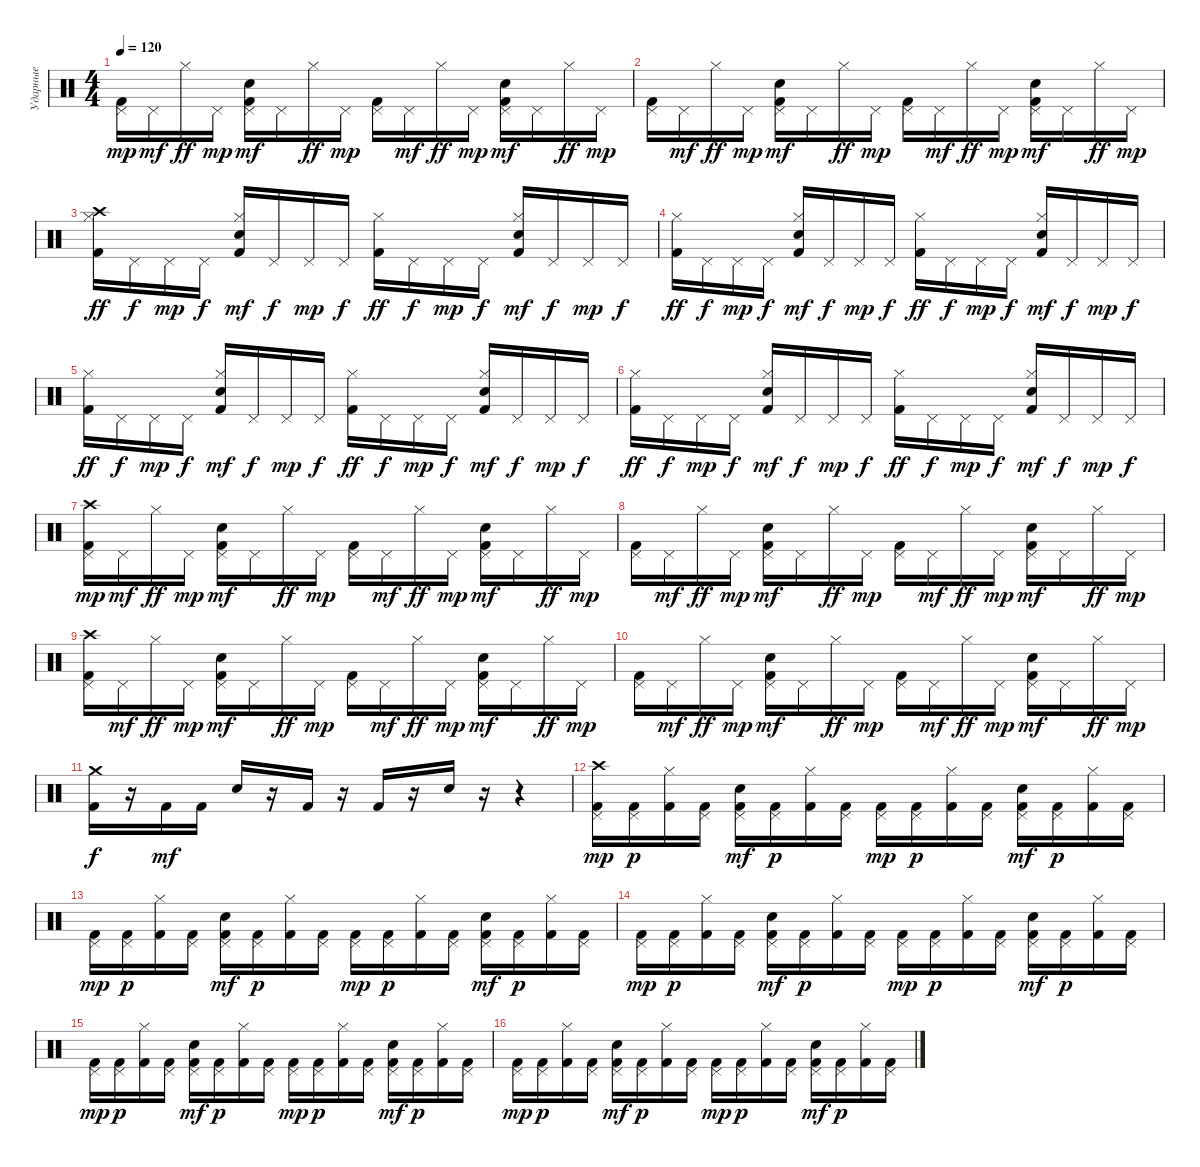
\track ("Ударные" "Ударные") {instrument percussion}
\staff {score}
\articulation defaults
\ts (4 4)
\tempo 120
\clef neutral
\ks c
("Pedal Hi-Hat (hit)" "Kick (hit) 2").16{dy mp} "Pedal Hi-Hat (hit)".16{dy mf} "Hi-Hat (closed)".16{dy ff} "Pedal Hi-Hat (hit)".16{dy mp} ("Pedal Hi-Hat (hit)" "Electric Snare (hit)" "Kick (hit) 2").16{dy mf} "Pedal Hi-Hat (hit)".16 "Hi-Hat (closed)".16{dy ff} "Pedal Hi-Hat (hit)".16{dy mp} ("Pedal Hi-Hat (hit)" "Kick (hit) 2").16 "Pedal Hi-Hat (hit)".16{dy mf} "Hi-Hat (closed)".16{dy ff} "Pedal Hi-Hat (hit)".16{dy mp} ("Pedal Hi-Hat (hit)" "Electric Snare (hit)" "Kick (hit) 2").16{dy mf} "Pedal Hi-Hat (hit)".16 "Hi-Hat (closed)".16{dy ff} "Pedal Hi-Hat (hit)".16{dy mp} |
("Pedal Hi-Hat (hit)" "Kick (hit) 2").16 "Pedal Hi-Hat (hit)".16{dy mf} "Hi-Hat (closed)".16{dy ff} "Pedal Hi-Hat (hit)".16{dy mp} ("Pedal Hi-Hat (hit)" "Electric Snare (hit)" "Kick (hit) 2").16{dy mf} "Pedal Hi-Hat (hit)".16 "Hi-Hat (closed)".16{dy ff} "Pedal Hi-Hat (hit)".16{dy mp} ("Pedal Hi-Hat (hit)" "Kick (hit) 2").16 "Pedal Hi-Hat (hit)".16{dy mf} "Hi-Hat (closed)".16{dy ff} "Pedal Hi-Hat (hit)".16{dy mp} ("Pedal Hi-Hat (hit)" "Electric Snare (hit)" "Kick (hit) 2").16{dy mf} "Pedal Hi-Hat (hit)".16 "Hi-Hat (closed)".16{dy ff} "Pedal Hi-Hat (hit)".16{dy mp} |
("Crash high (hit)" "Hi-Hat (closed)" "Kick (hit) 2").16{dy ff} "Pedal Hi-Hat (hit)".16{dy f} "Pedal Hi-Hat (hit)".16{dy mp} "Pedal Hi-Hat (hit)".16{dy f} ("Hi-Hat (closed)" "Electric Snare (hit)" "Kick (hit) 2").16{dy mf} "Pedal Hi-Hat (hit)".16{dy f} "Pedal Hi-Hat (hit)".16{dy mp} "Pedal Hi-Hat (hit)".16{dy f} ("Hi-Hat (closed)" "Kick (hit) 2").16{dy ff} "Pedal Hi-Hat (hit)".16{dy f} "Pedal Hi-Hat (hit)".16{dy mp} "Pedal Hi-Hat (hit)".16{dy f} ("Hi-Hat (closed)" "Electric Snare (hit)" "Kick (hit) 2").16{dy mf} "Pedal Hi-Hat (hit)".16{dy f} "Pedal Hi-Hat (hit)".16{dy mp} "Pedal Hi-Hat (hit)".16{dy f} |
("Hi-Hat (closed)" "Kick (hit) 2").16{dy ff} "Pedal Hi-Hat (hit)".16{dy f} "Pedal Hi-Hat (hit)".16{dy mp} "Pedal Hi-Hat (hit)".16{dy f} ("Hi-Hat (closed)" "Electric Snare (hit)" "Kick (hit) 2").16{dy mf} "Pedal Hi-Hat (hit)".16{dy f} "Pedal Hi-Hat (hit)".16{dy mp} "Pedal Hi-Hat (hit)".16{dy f} ("Hi-Hat (closed)" "Kick (hit) 2").16{dy ff} "Pedal Hi-Hat (hit)".16{dy f} "Pedal Hi-Hat (hit)".16{dy mp} "Pedal Hi-Hat (hit)".16{dy f} ("Hi-Hat (closed)" "Electric Snare (hit)" "Kick (hit) 2").16{dy mf} "Pedal Hi-Hat (hit)".16{dy f} "Pedal Hi-Hat (hit)".16{dy mp} "Pedal Hi-Hat (hit)".16{dy f} |
("Hi-Hat (closed)" "Kick (hit) 2").16{dy ff} "Pedal Hi-Hat (hit)".16{dy f} "Pedal Hi-Hat (hit)".16{dy mp} "Pedal Hi-Hat (hit)".16{dy f} ("Hi-Hat (closed)" "Electric Snare (hit)" "Kick (hit) 2").16{dy mf} "Pedal Hi-Hat (hit)".16{dy f} "Pedal Hi-Hat (hit)".16{dy mp} "Pedal Hi-Hat (hit)".16{dy f} ("Hi-Hat (closed)" "Kick (hit) 2").16{dy ff} "Pedal Hi-Hat (hit)".16{dy f} "Pedal Hi-Hat (hit)".16{dy mp} "Pedal Hi-Hat (hit)".16{dy f} ("Hi-Hat (closed)" "Electric Snare (hit)" "Kick (hit) 2").16{dy mf} "Pedal Hi-Hat (hit)".16{dy f} "Pedal Hi-Hat (hit)".16{dy mp} "Pedal Hi-Hat (hit)".16{dy f} |
("Hi-Hat (closed)" "Kick (hit) 2").16{dy ff} "Pedal Hi-Hat (hit)".16{dy f} "Pedal Hi-Hat (hit)".16{dy mp} "Pedal Hi-Hat (hit)".16{dy f} ("Hi-Hat (closed)" "Electric Snare (hit)" "Kick (hit) 2").16{dy mf} "Pedal Hi-Hat (hit)".16{dy f} "Pedal Hi-Hat (hit)".16{dy mp} "Pedal Hi-Hat (hit)".16{dy f} ("Hi-Hat (closed)" "Kick (hit) 2").16{dy ff} "Pedal Hi-Hat (hit)".16{dy f} "Pedal Hi-Hat (hit)".16{dy mp} "Pedal Hi-Hat (hit)".16{dy f} ("Hi-Hat (closed)" "Electric Snare (hit)" "Kick (hit) 2").16{dy mf} "Pedal Hi-Hat (hit)".16{dy f} "Pedal Hi-Hat (hit)".16{dy mp} "Pedal Hi-Hat (hit)".16{dy f} |
("Crash high (hit)" "Pedal Hi-Hat (hit)" "Kick (hit) 2").16{dy mp} "Pedal Hi-Hat (hit)".16{dy mf} "Hi-Hat (closed)".16{dy ff} "Pedal Hi-Hat (hit)".16{dy mp} ("Pedal Hi-Hat (hit)" "Electric Snare (hit)" "Kick (hit) 2").16{dy mf} "Pedal Hi-Hat (hit)".16 "Hi-Hat (closed)".16{dy ff} "Pedal Hi-Hat (hit)".16{dy mp} ("Pedal Hi-Hat (hit)" "Kick (hit) 2").16 "Pedal Hi-Hat (hit)".16{dy mf} "Hi-Hat (closed)".16{dy ff} "Pedal Hi-Hat (hit)".16{dy mp} ("Pedal Hi-Hat (hit)" "Electric Snare (hit)" "Kick (hit) 2").16{dy mf} "Pedal Hi-Hat (hit)".16 "Hi-Hat (closed)".16{dy ff} "Pedal Hi-Hat (hit)".16{dy mp} |
("Pedal Hi-Hat (hit)" "Kick (hit) 2").16 "Pedal Hi-Hat (hit)".16{dy mf} "Hi-Hat (closed)".16{dy ff} "Pedal Hi-Hat (hit)".16{dy mp} ("Pedal Hi-Hat (hit)" "Electric Snare (hit)" "Kick (hit) 2").16{dy mf} "Pedal Hi-Hat (hit)".16 "Hi-Hat (closed)".16{dy ff} "Pedal Hi-Hat (hit)".16{dy mp} ("Pedal Hi-Hat (hit)" "Kick (hit) 2").16 "Pedal Hi-Hat (hit)".16{dy mf} "Hi-Hat (closed)".16{dy ff} "Pedal Hi-Hat (hit)".16{dy mp} ("Pedal Hi-Hat (hit)" "Electric Snare (hit)" "Kick (hit) 2").16{dy mf} "Pedal Hi-Hat (hit)".16 "Hi-Hat (closed)".16{dy ff} "Pedal Hi-Hat (hit)".16{dy mp} |
("Crash high (hit)" "Pedal Hi-Hat (hit)" "Kick (hit) 2").16 "Pedal Hi-Hat (hit)".16{dy mf} "Hi-Hat (closed)".16{dy ff} "Pedal Hi-Hat (hit)".16{dy mp} ("Pedal Hi-Hat (hit)" "Electric Snare (hit)" "Kick (hit) 2").16{dy mf} "Pedal Hi-Hat (hit)".16 "Hi-Hat (closed)".16{dy ff} "Pedal Hi-Hat (hit)".16{dy mp} ("Pedal Hi-Hat (hit)" "Kick (hit) 2").16 "Pedal Hi-Hat (hit)".16{dy mf} "Hi-Hat (closed)".16{dy ff} "Pedal Hi-Hat (hit)".16{dy mp} ("Pedal Hi-Hat (hit)" "Electric Snare (hit)" "Kick (hit) 2").16{dy mf} "Pedal Hi-Hat (hit)".16 "Hi-Hat (closed)".16{dy ff} "Pedal Hi-Hat (hit)".16{dy mp} |
("Pedal Hi-Hat (hit)" "Kick (hit) 2").16 "Pedal Hi-Hat (hit)".16{dy mf} "Hi-Hat (closed)".16{dy ff} "Pedal Hi-Hat (hit)".16{dy mp} ("Pedal Hi-Hat (hit)" "Electric Snare (hit)" "Kick (hit) 2").16{dy mf} "Pedal Hi-Hat (hit)".16 "Hi-Hat (closed)".16{dy ff} "Pedal Hi-Hat (hit)".16{dy mp} ("Pedal Hi-Hat (hit)" "Kick (hit) 2").16 "Pedal Hi-Hat (hit)".16{dy mf} "Hi-Hat (closed)".16{dy ff} "Pedal Hi-Hat (hit)".16{dy mp} ("Pedal Hi-Hat (hit)" "Electric Snare (hit)" "Kick (hit) 2").16{dy mf} "Pedal Hi-Hat (hit)".16 "Hi-Hat (closed)".16{dy ff} "Pedal Hi-Hat (hit)".16{dy mp} |
("Crash medium (hit)" "Kick (hit) 2").16{dy f} r.16 "Kick (hit) 2".16{dy mf} "Kick (hit) 2".16 "Electric Snare (hit)".16 r.16 "Kick (hit) 2".16 r.16 "Kick (hit) 2".16 r.16 "Electric Snare (hit)".16 r.16 r.4 |
("Crash high (hit)" "Pedal Hi-Hat (hit)" "Kick (hit) 2").16{dy mp} ("Pedal Hi-Hat (hit)" "Kick (hit) 2").16{dy p} ("Hi-Hat (closed)" "Kick (hit) 2").16 ("Pedal Hi-Hat (hit)" "Kick (hit) 2").16 ("Pedal Hi-Hat (hit)" "Electric Snare (hit)" "Kick (hit) 2").16{dy mf} ("Pedal Hi-Hat (hit)" "Kick (hit) 2").16{dy p} ("Hi-Hat (closed)" "Kick (hit) 2").16 ("Pedal Hi-Hat (hit)" "Kick (hit) 2").16 ("Pedal Hi-Hat (hit)" "Kick (hit) 2").16{dy mp} ("Pedal Hi-Hat (hit)" "Kick (hit) 2").16{dy p} ("Hi-Hat (closed)" "Kick (hit) 2").16 ("Pedal Hi-Hat (hit)" "Kick (hit) 2").16 ("Pedal Hi-Hat (hit)" "Electric Snare (hit)" "Kick (hit) 2").16{dy mf} ("Pedal Hi-Hat (hit)" "Kick (hit) 2").16{dy p} ("Hi-Hat (closed)" "Kick (hit) 2").16 ("Pedal Hi-Hat (hit)" "Kick (hit) 2").16 |
("Pedal Hi-Hat (hit)" "Kick (hit) 2").16{dy mp} ("Pedal Hi-Hat (hit)" "Kick (hit) 2").16{dy p} ("Hi-Hat (closed)" "Kick (hit) 2").16 ("Pedal Hi-Hat (hit)" "Kick (hit) 2").16 ("Pedal Hi-Hat (hit)" "Electric Snare (hit)" "Kick (hit) 2").16{dy mf} ("Pedal Hi-Hat (hit)" "Kick (hit) 2").16{dy p} ("Hi-Hat (closed)" "Kick (hit) 2").16 ("Pedal Hi-Hat (hit)" "Kick (hit) 2").16 ("Pedal Hi-Hat (hit)" "Kick (hit) 2").16{dy mp} ("Pedal Hi-Hat (hit)" "Kick (hit) 2").16{dy p} ("Hi-Hat (closed)" "Kick (hit) 2").16 ("Pedal Hi-Hat (hit)" "Kick (hit) 2").16 ("Pedal Hi-Hat (hit)" "Electric Snare (hit)" "Kick (hit) 2").16{dy mf} ("Pedal Hi-Hat (hit)" "Kick (hit) 2").16{dy p} ("Hi-Hat (closed)" "Kick (hit) 2").16 ("Pedal Hi-Hat (hit)" "Kick (hit) 2").16 |
("Pedal Hi-Hat (hit)" "Kick (hit) 2").16{dy mp} ("Pedal Hi-Hat (hit)" "Kick (hit) 2").16{dy p} ("Hi-Hat (closed)" "Kick (hit) 2").16 ("Pedal Hi-Hat (hit)" "Kick (hit) 2").16 ("Pedal Hi-Hat (hit)" "Electric Snare (hit)" "Kick (hit) 2").16{dy mf} ("Pedal Hi-Hat (hit)" "Kick (hit) 2").16{dy p} ("Hi-Hat (closed)" "Kick (hit) 2").16 ("Pedal Hi-Hat (hit)" "Kick (hit) 2").16 ("Pedal Hi-Hat (hit)" "Kick (hit) 2").16{dy mp} ("Pedal Hi-Hat (hit)" "Kick (hit) 2").16{dy p} ("Hi-Hat (closed)" "Kick (hit) 2").16 ("Pedal Hi-Hat (hit)" "Kick (hit) 2").16 ("Pedal Hi-Hat (hit)" "Electric Snare (hit)" "Kick (hit) 2").16{dy mf} ("Pedal Hi-Hat (hit)" "Kick (hit) 2").16{dy p} ("Hi-Hat (closed)" "Kick (hit) 2").16 ("Pedal Hi-Hat (hit)" "Kick (hit) 2").16 |
("Pedal Hi-Hat (hit)" "Kick (hit) 2").16{dy mp} ("Pedal Hi-Hat (hit)" "Kick (hit) 2").16{dy p} ("Hi-Hat (closed)" "Kick (hit) 2").16 ("Pedal Hi-Hat (hit)" "Kick (hit) 2").16 ("Pedal Hi-Hat (hit)" "Electric Snare (hit)" "Kick (hit) 2").16{dy mf} ("Pedal Hi-Hat (hit)" "Kick (hit) 2").16{dy p} ("Hi-Hat (closed)" "Kick (hit) 2").16 ("Pedal Hi-Hat (hit)" "Kick (hit) 2").16 ("Pedal Hi-Hat (hit)" "Kick (hit) 2").16{dy mp} ("Pedal Hi-Hat (hit)" "Kick (hit) 2").16{dy p} ("Hi-Hat (closed)" "Kick (hit) 2").16 ("Pedal Hi-Hat (hit)" "Kick (hit) 2").16 ("Pedal Hi-Hat (hit)" "Electric Snare (hit)" "Kick (hit) 2").16{dy mf} ("Pedal Hi-Hat (hit)" "Kick (hit) 2").16{dy p} ("Hi-Hat (closed)" "Kick (hit) 2").16 ("Pedal Hi-Hat (hit)" "Kick (hit) 2").16 |
("Pedal Hi-Hat (hit)" "Kick (hit) 2").16{dy mp} ("Pedal Hi-Hat (hit)" "Kick (hit) 2").16{dy p} ("Hi-Hat (closed)" "Kick (hit) 2").16 ("Pedal Hi-Hat (hit)" "Kick (hit) 2").16 ("Pedal Hi-Hat (hit)" "Electric Snare (hit)" "Kick (hit) 2").16{dy mf} ("Pedal Hi-Hat (hit)" "Kick (hit) 2").16{dy p} ("Hi-Hat (closed)" "Kick (hit) 2").16 ("Pedal Hi-Hat (hit)" "Kick (hit) 2").16 ("Pedal Hi-Hat (hit)" "Kick (hit) 2").16{dy mp} ("Pedal Hi-Hat (hit)" "Kick (hit) 2").16{dy p} ("Hi-Hat (closed)" "Kick (hit) 2").16 ("Pedal Hi-Hat (hit)" "Kick (hit) 2").16 ("Pedal Hi-Hat (hit)" "Electric Snare (hit)" "Kick (hit) 2").16{dy mf} ("Pedal Hi-Hat (hit)" "Kick (hit) 2").16{dy p} ("Hi-Hat (closed)" "Kick (hit) 2").16 ("Pedal Hi-Hat (hit)" "Kick (hit) 2").16
